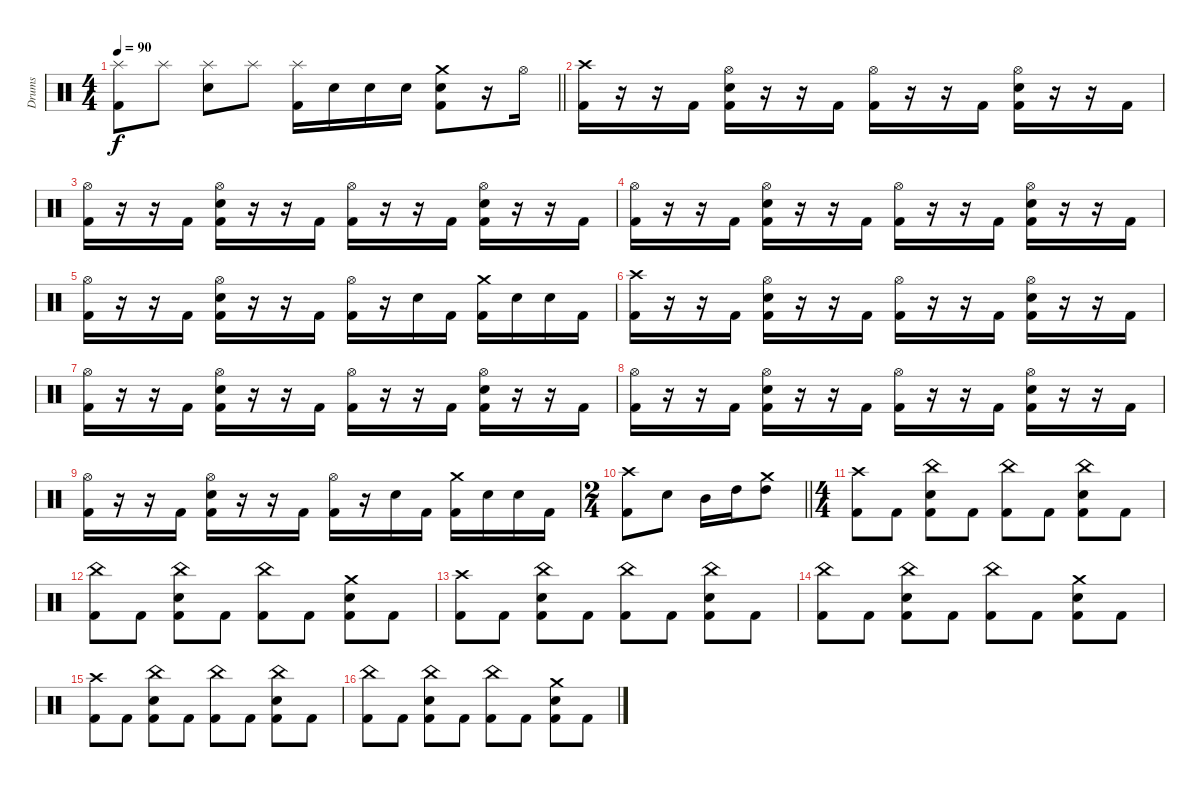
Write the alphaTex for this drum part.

\track ("Drums" "Drums") {instrument percussion}
\staff {score}
\articulation defaults
\ts (4 4)
\tempo 90
\clef neutral
\barLineRight lightlight
\ks c
("Splash (hit)" "Kick (hit) 2").8{dy f} "Splash (hit)".8 ("Splash (hit)" "Electric Snare (hit)").8 "Splash (hit)".8 ("Splash (hit)" "Kick (hit) 2").16 "Electric Snare (hit)".16 "Electric Snare (hit)".16 "Electric Snare (hit)".16 ("Crash medium (hit)" "Snare (hit) 2" "Kick (hit) 2").8 r.16 "Hi-Hat (open)".16 |
\section ("" "")
("Crash high (hit)" "Kick (hit) 2").16 r.16 r.16 "Kick (hit) 2".16 ("Hi-Hat (open)" "Electric Snare (hit)" "Kick (hit) 2").16 r.16 r.16 "Kick (hit) 2".16 ("Hi-Hat (open)" "Kick (hit) 2").16 r.16 r.16 "Kick (hit) 2".16 ("Hi-Hat (open)" "Electric Snare (hit)" "Kick (hit) 2").16 r.16 r.16 "Kick (hit) 2".16 |
("Hi-Hat (open)" "Kick (hit) 2").16 r.16 r.16 "Kick (hit) 2".16 ("Hi-Hat (open)" "Electric Snare (hit)" "Kick (hit) 2").16 r.16 r.16 "Kick (hit) 2".16 ("Hi-Hat (open)" "Kick (hit) 2").16 r.16 r.16 "Kick (hit) 2".16 ("Hi-Hat (open)" "Electric Snare (hit)" "Kick (hit) 2").16 r.16 r.16 "Kick (hit) 2".16 |
("Hi-Hat (open)" "Kick (hit) 2").16 r.16 r.16 "Kick (hit) 2".16 ("Hi-Hat (open)" "Electric Snare (hit)" "Kick (hit) 2").16 r.16 r.16 "Kick (hit) 2".16 ("Hi-Hat (open)" "Kick (hit) 2").16 r.16 r.16 "Kick (hit) 2".16 ("Hi-Hat (open)" "Electric Snare (hit)" "Kick (hit) 2").16 r.16 r.16 "Kick (hit) 2".16 |
("Hi-Hat (open)" "Kick (hit) 2").16 r.16 r.16 "Kick (hit) 2".16 ("Hi-Hat (open)" "Electric Snare (hit)" "Kick (hit) 2").16 r.16 r.16 "Kick (hit) 2".16 ("Hi-Hat (open)" "Kick (hit) 2").16 r.16 "Electric Snare (hit)".16 "Kick (hit) 2".16 ("Crash medium (hit)" "Kick (hit) 2").16 "Snare (hit) 2".16 "Snare (hit) 2".16 "Kick (hit) 2".16 |
("Crash high (hit)" "Kick (hit) 2").16 r.16 r.16 "Kick (hit) 2".16 ("Hi-Hat (open)" "Electric Snare (hit)" "Kick (hit) 2").16 r.16 r.16 "Kick (hit) 2".16 ("Hi-Hat (open)" "Kick (hit) 2").16 r.16 r.16 "Kick (hit) 2".16 ("Hi-Hat (open)" "Electric Snare (hit)" "Kick (hit) 2").16 r.16 r.16 "Kick (hit) 2".16 |
("Hi-Hat (open)" "Kick (hit) 2").16 r.16 r.16 "Kick (hit) 2".16 ("Hi-Hat (open)" "Electric Snare (hit)" "Kick (hit) 2").16 r.16 r.16 "Kick (hit) 2".16 ("Hi-Hat (open)" "Kick (hit) 2").16 r.16 r.16 "Kick (hit) 2".16 ("Hi-Hat (open)" "Electric Snare (hit)" "Kick (hit) 2").16 r.16 r.16 "Kick (hit) 2".16 |
("Hi-Hat (open)" "Kick (hit) 2").16 r.16 r.16 "Kick (hit) 2".16 ("Hi-Hat (open)" "Electric Snare (hit)" "Kick (hit) 2").16 r.16 r.16 "Kick (hit) 2".16 ("Hi-Hat (open)" "Kick (hit) 2").16 r.16 r.16 "Kick (hit) 2".16 ("Hi-Hat (open)" "Electric Snare (hit)" "Kick (hit) 2").16 r.16 r.16 "Kick (hit) 2".16 |
("Hi-Hat (open)" "Kick (hit) 2").16 r.16 r.16 "Kick (hit) 2".16 ("Hi-Hat (open)" "Electric Snare (hit)" "Kick (hit) 2").16 r.16 r.16 "Kick (hit) 2".16 ("Hi-Hat (open)" "Kick (hit) 2").16 r.16 "Electric Snare (hit)".16 "Kick (hit) 2".16 ("Crash medium (hit)" "Kick (hit) 2").16 "Snare (hit) 2".16 "Snare (hit) 2".16 "Kick (hit) 2".16 |
\ts (2 4)
\barLineRight lightlight
("Crash high (hit)" "Kick (hit) 2").8 "Electric Snare (hit)".8 "Mid Tom (hit)".16 "High Tom (hit)".16 ("Crash medium (hit)" "High Tom (hit)").8 |
\ts (4 4)
\section ("" "")
("Crash high (hit)" "Kick (hit) 2").8 "Kick (hit) 2".8 ("China (hit)" "Electric Snare (hit)" "Kick (hit) 2").8 "Kick (hit) 2".8 ("China (hit)" "Kick (hit) 2").8 "Kick (hit) 2".8 ("China (hit)" "Electric Snare (hit)" "Kick (hit) 2").8 "Kick (hit) 2".8 |
("China (hit)" "Kick (hit) 2").8 "Kick (hit) 2".8 ("China (hit)" "Electric Snare (hit)" "Kick (hit) 2").8 "Kick (hit) 2".8 ("China (hit)" "Kick (hit) 2").8 "Kick (hit) 2".8 ("Crash medium (hit)" "Electric Snare (hit)" "Kick (hit) 2").8 "Kick (hit) 2".8 |
("Crash high (hit)" "Kick (hit) 2").8 "Kick (hit) 2".8 ("China (hit)" "Electric Snare (hit)" "Kick (hit) 2").8 "Kick (hit) 2".8 ("China (hit)" "Kick (hit) 2").8 "Kick (hit) 2".8 ("China (hit)" "Electric Snare (hit)" "Kick (hit) 2").8 "Kick (hit) 2".8 |
("China (hit)" "Kick (hit) 2").8 "Kick (hit) 2".8 ("China (hit)" "Electric Snare (hit)" "Kick (hit) 2").8 "Kick (hit) 2".8 ("China (hit)" "Kick (hit) 2").8 "Kick (hit) 2".8 ("Crash medium (hit)" "Electric Snare (hit)" "Kick (hit) 2").8 "Kick (hit) 2".8 |
("Crash high (hit)" "Kick (hit) 2").8 "Kick (hit) 2".8 ("China (hit)" "Electric Snare (hit)" "Kick (hit) 2").8 "Kick (hit) 2".8 ("China (hit)" "Kick (hit) 2").8 "Kick (hit) 2".8 ("China (hit)" "Electric Snare (hit)" "Kick (hit) 2").8 "Kick (hit) 2".8 |
("China (hit)" "Kick (hit) 2").8 "Kick (hit) 2".8 ("China (hit)" "Electric Snare (hit)" "Kick (hit) 2").8 "Kick (hit) 2".8 ("China (hit)" "Kick (hit) 2").8 "Kick (hit) 2".8 ("Crash medium (hit)" "Electric Snare (hit)" "Kick (hit) 2").8 "Kick (hit) 2".8
